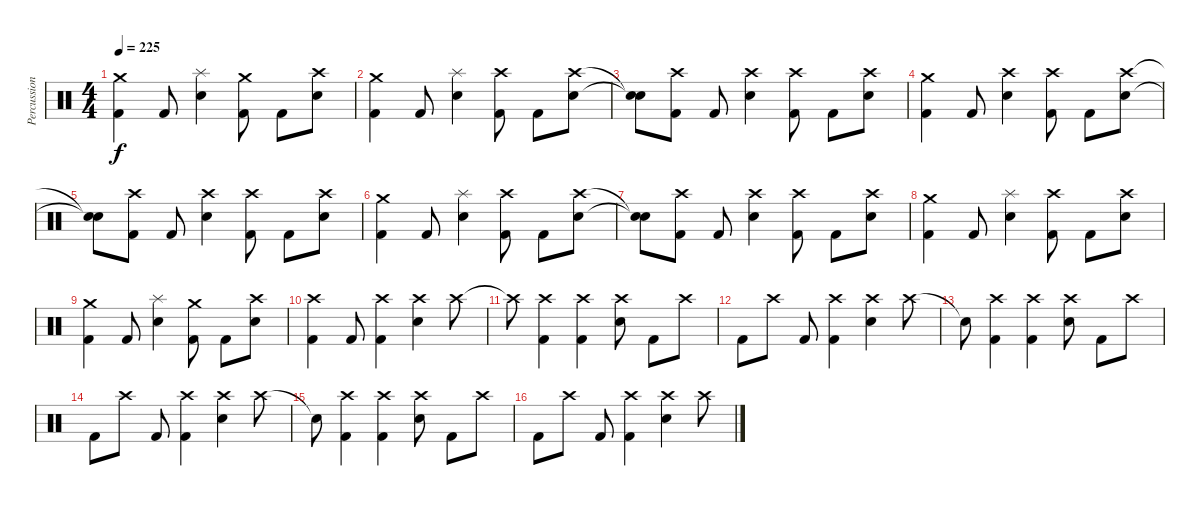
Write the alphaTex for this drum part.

\track ("Percussion" "Percussion") {instrument percussion}
\staff {score}
\articulation defaults
\ts (4 4)
\tempo 225
\clef neutral
\ks c
("Crash medium (hit)" "Kick (hit) 2").4{dy f} "Kick (hit) 2".8 ("Splash (hit)" "Snare (hit) 2").4 ("Crash medium (hit)" "Kick (hit) 2").8 "Kick (hit) 2".8 ("Crash high (hit)" "Snare (hit) 2").8 |
("Crash medium (hit)" "Kick (hit) 2").4 "Kick (hit) 2".8 ("Splash (hit)" "Snare (hit) 2").4 ("Crash high (hit)" "Kick (hit) 2").8 "Kick (hit) 2".8 ("Crash high (hit)" "Snare (hit) 2").8 |
("Snare (hit)"{t} "Snare (hit)"{t}).8 ("Crash high (hit)" "Kick (hit) 2").8 "Kick (hit) 2".8 ("Crash high (hit)" "Snare (hit) 2").4 ("Crash high (hit)" "Kick (hit) 2").8 "Kick (hit) 2".8 ("Crash high (hit)" "Snare (hit) 2").8 |
("Crash medium (hit)" "Kick (hit) 2").4 "Kick (hit) 2".8 ("Crash high (hit)" "Snare (hit) 2").4 ("Crash high (hit)" "Kick (hit) 2").8 "Kick (hit) 2".8 ("Crash high (hit)" "Snare (hit) 2").8 |
("Snare (hit)"{t} "Snare (hit)"{t}).8 ("Crash high (hit)" "Kick (hit) 2").8 "Kick (hit) 2".8 ("Crash high (hit)" "Snare (hit) 2").4 ("Crash high (hit)" "Kick (hit) 2").8 "Kick (hit) 2".8 ("Crash high (hit)" "Snare (hit) 2").8 |
("Crash medium (hit)" "Kick (hit) 2").4 "Kick (hit) 2".8 ("Splash (hit)" "Snare (hit) 2").4 ("Crash high (hit)" "Kick (hit) 2").8 "Kick (hit) 2".8 ("Crash high (hit)" "Snare (hit) 2").8 |
("Snare (hit)"{t} "Snare (hit)"{t}).8 ("Crash high (hit)" "Kick (hit) 2").8 "Kick (hit) 2".8 ("Crash high (hit)" "Snare (hit) 2").4 ("Crash high (hit)" "Kick (hit) 2").8 "Kick (hit) 2".8 ("Crash high (hit)" "Snare (hit) 2").8 |
("Crash medium (hit)" "Kick (hit) 2").4 "Kick (hit) 2".8 ("Splash (hit)" "Snare (hit) 2").4 ("Crash high (hit)" "Kick (hit) 2").8 "Kick (hit) 2".8 ("Crash high (hit)" "Snare (hit) 2").8 |
("Crash medium (hit)" "Kick (hit) 2").4 "Kick (hit) 2".8 ("Splash (hit)" "Snare (hit) 2").4 ("Crash medium (hit)" "Kick (hit) 2").8 "Kick (hit) 2".8 ("Crash high (hit)" "Snare (hit) 2").8 |
("Crash high (hit)" "Kick (hit) 2").4 "Kick (hit) 2".8 ("Crash high (hit)" "Kick (hit) 2").4 ("Crash high (hit)" "Snare (hit) 2").4 "Crash high (hit)".8 |
"Crash high (hit)"{t}.8 ("Crash high (hit)" "Kick (hit) 2").4 ("Crash high (hit)" "Kick (hit) 2").4 ("Crash high (hit)" "Snare (hit) 2").8 "Kick (hit) 2".8 "Crash high (hit)".8 |
"Kick (hit) 2".8 "Crash high (hit)".8 "Kick (hit) 2".8 ("Crash high (hit)" "Kick (hit) 2").4 ("Crash high (hit)" "Snare (hit) 2").4 "Crash high (hit)".8 |
"Snare (hit)"{t}.8 ("Crash high (hit)" "Kick (hit) 2").4 ("Crash high (hit)" "Kick (hit) 2").4 ("Crash high (hit)" "Snare (hit) 2").8 "Kick (hit) 2".8 "Crash high (hit)".8 |
"Kick (hit) 2".8 "Crash high (hit)".8 "Kick (hit) 2".8 ("Crash high (hit)" "Kick (hit) 2").4 ("Crash high (hit)" "Snare (hit) 2").4 "Crash high (hit)".8 |
"Snare (hit)"{t}.8 ("Crash high (hit)" "Kick (hit) 2").4 ("Crash high (hit)" "Kick (hit) 2").4 ("Crash high (hit)" "Snare (hit) 2").8 "Kick (hit) 2".8 "Crash high (hit)".8 |
"Kick (hit) 2".8 "Crash high (hit)".8 "Kick (hit) 2".8 ("Crash high (hit)" "Kick (hit) 2").4 ("Crash high (hit)" "Snare (hit) 2").4 "Crash high (hit)".8
